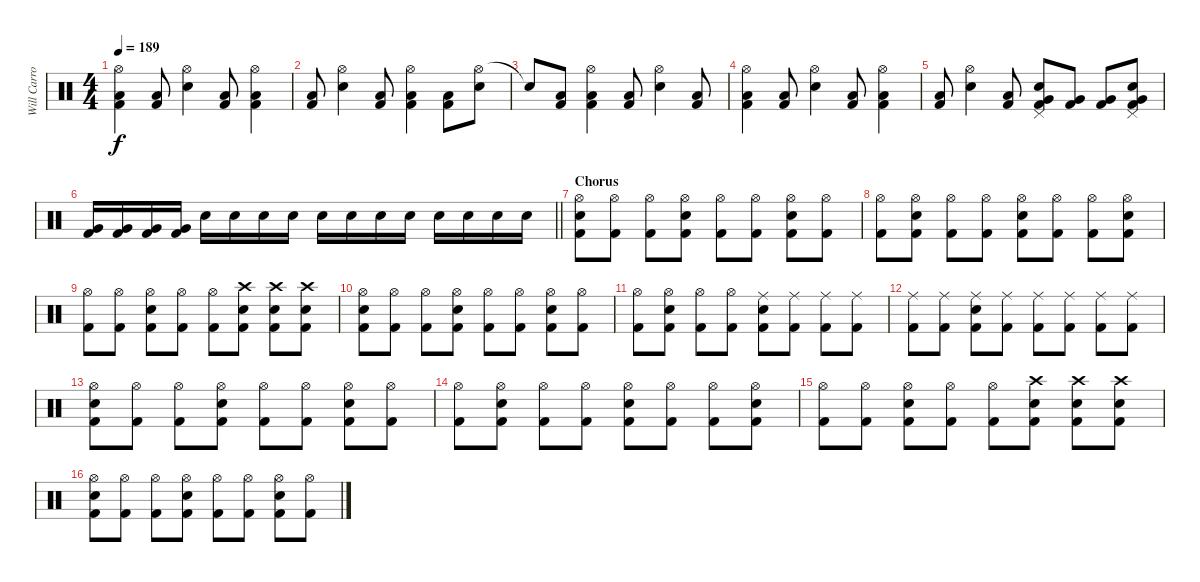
\track ("Will Carroll" "Will Carro") {instrument percussion}
\staff {score}
\articulation defaults
\ts (4 4)
\tempo 189
\clef neutral
\ks c
("Hi-Hat (open)" "Low Floor Tom (hit)" "Kick (hit) 2").4{dy f} ("Low Floor Tom (hit)" "Kick (hit) 2").8 ("Hi-Hat (open)" "Electric Snare (hit)").4 ("Low Floor Tom (hit)" "Kick (hit) 2").8 ("Hi-Hat (open)" "Low Floor Tom (hit)" "Kick (hit) 2").4 |
("Low Floor Tom (hit)" "Kick (hit) 2").8 ("Hi-Hat (open)" "Electric Snare (hit)").4 ("Low Floor Tom (hit)" "Kick (hit) 2").8 ("Hi-Hat (open)" "Low Floor Tom (hit)" "Kick (hit) 2").4 ("Low Floor Tom (hit)" "Kick (hit) 2").8 ("Hi-Hat (open)" "Electric Snare (hit)").8 |
"Snare (hit)"{t}.8 ("Low Floor Tom (hit)" "Kick (hit) 2").8 ("Hi-Hat (open)" "Low Floor Tom (hit)" "Kick (hit) 2").4 ("Low Floor Tom (hit)" "Kick (hit) 2").8 ("Hi-Hat (open)" "Electric Snare (hit)").4 ("Low Floor Tom (hit)" "Kick (hit) 2").8 |
("Hi-Hat (open)" "Low Floor Tom (hit)" "Kick (hit) 2").4 ("Low Floor Tom (hit)" "Kick (hit) 2").8 ("Hi-Hat (open)" "Electric Snare (hit)").4 ("Low Floor Tom (hit)" "Kick (hit) 2").8 ("Hi-Hat (open)" "Low Floor Tom (hit)" "Kick (hit) 2").4 |
("Low Floor Tom (hit)" "Kick (hit) 2").8 ("Hi-Hat (open)" "Electric Snare (hit)").4 ("Low Floor Tom (hit)" "Kick (hit) 2").8 ("Pedal Hi-Hat (hit)" "Very Low Tom (hit)" "Electric Snare (hit)" "Kick (hit) 2").8 ("Very Low Tom (hit)" "Kick (hit) 2").8 ("Very Low Tom (hit)" "Kick (hit) 2").8 ("Pedal Hi-Hat (hit)" "Very Low Tom (hit)" "Electric Snare (hit)" "Kick (hit) 2").8 |
\barLineRight lightlight
("Very Low Tom (hit)" "Kick (hit) 2").16 ("Very Low Tom (hit)" "Kick (hit) 2").16 ("Very Low Tom (hit)" "Kick (hit) 2").16 ("Very Low Tom (hit)" "Kick (hit) 2").16 "Electric Snare (hit)".16 "Electric Snare (hit)".16 "Electric Snare (hit)".16 "Electric Snare (hit)".16 "Electric Snare (hit)".16 "Electric Snare (hit)".16 "Electric Snare (hit)".16 "Electric Snare (hit)".16 "Electric Snare (hit)".16 "Electric Snare (hit)".16 "Electric Snare (hit)".16 "Electric Snare (hit)".16 |
\section ("" "Chorus")
("Hi-Hat (open)" "Electric Snare (hit)" "Kick (hit) 2").8 ("Hi-Hat (open)" "Kick (hit) 2").8 ("Hi-Hat (open)" "Kick (hit) 2").8 ("Hi-Hat (open)" "Electric Snare (hit)" "Kick (hit) 2").8 ("Hi-Hat (open)" "Kick (hit) 2").8 ("Hi-Hat (open)" "Kick (hit) 2").8 ("Hi-Hat (open)" "Electric Snare (hit)" "Kick (hit) 2").8 ("Hi-Hat (open)" "Kick (hit) 2").8 |
("Hi-Hat (open)" "Kick (hit) 2").8 ("Hi-Hat (open)" "Electric Snare (hit)" "Kick (hit) 2").8 ("Hi-Hat (open)" "Kick (hit) 2").8 ("Hi-Hat (open)" "Kick (hit) 2").8 ("Hi-Hat (open)" "Electric Snare (hit)" "Kick (hit) 2").8 ("Hi-Hat (open)" "Kick (hit) 2").8 ("Hi-Hat (open)" "Kick (hit) 2").8 ("Hi-Hat (open)" "Electric Snare (hit)" "Kick (hit) 2").8 |
("Hi-Hat (open)" "Kick (hit) 2").8 ("Hi-Hat (open)" "Kick (hit) 2").8 ("Hi-Hat (open)" "Electric Snare (hit)" "Kick (hit) 2").8 ("Hi-Hat (open)" "Kick (hit) 2").8 ("Hi-Hat (open)" "Kick (hit) 2").8 ("Crash high (hit)" "Electric Snare (hit)" "Kick (hit) 2").8 ("Crash high (hit)" "Electric Snare (hit)" "Kick (hit) 2").8 ("Crash high (hit)" "Electric Snare (hit)" "Kick (hit) 2").8 |
("Hi-Hat (open)" "Electric Snare (hit)" "Kick (hit) 2").8 ("Hi-Hat (open)" "Kick (hit) 2").8 ("Hi-Hat (open)" "Kick (hit) 2").8 ("Hi-Hat (open)" "Electric Snare (hit)" "Kick (hit) 2").8 ("Hi-Hat (open)" "Kick (hit) 2").8 ("Hi-Hat (open)" "Kick (hit) 2").8 ("Hi-Hat (open)" "Electric Snare (hit)" "Kick (hit) 2").8 ("Hi-Hat (open)" "Kick (hit) 2").8 |
("Hi-Hat (open)" "Kick (hit) 2").8 ("Hi-Hat (open)" "Electric Snare (hit)" "Kick (hit) 2").8 ("Hi-Hat (open)" "Kick (hit) 2").8 ("Hi-Hat (open)" "Kick (hit) 2").8 ("Ride (middle)" "Electric Snare (hit)" "Kick (hit) 2").8 ("Ride (middle)" "Kick (hit) 2").8 ("Ride (middle)" "Kick (hit) 2").8 ("Ride (middle)" "Kick (hit) 2").8 |
("Ride (middle)" "Kick (hit) 2").8 ("Ride (middle)" "Kick (hit) 2").8 ("Ride (middle)" "Electric Snare (hit)" "Kick (hit) 2").8 ("Ride (middle)" "Kick (hit) 2").8 ("Ride (middle)" "Kick (hit) 2").8 ("Ride (middle)" "Kick (hit) 2").8 ("Ride (middle)" "Kick (hit) 2").8 ("Ride (middle)" "Kick (hit) 2").8 |
("Hi-Hat (open)" "Electric Snare (hit)" "Kick (hit) 2").8 ("Hi-Hat (open)" "Kick (hit) 2").8 ("Hi-Hat (open)" "Kick (hit) 2").8 ("Hi-Hat (open)" "Electric Snare (hit)" "Kick (hit) 2").8 ("Hi-Hat (open)" "Kick (hit) 2").8 ("Hi-Hat (open)" "Kick (hit) 2").8 ("Hi-Hat (open)" "Electric Snare (hit)" "Kick (hit) 2").8 ("Hi-Hat (open)" "Kick (hit) 2").8 |
("Hi-Hat (open)" "Kick (hit) 2").8 ("Hi-Hat (open)" "Electric Snare (hit)" "Kick (hit) 2").8 ("Hi-Hat (open)" "Kick (hit) 2").8 ("Hi-Hat (open)" "Kick (hit) 2").8 ("Hi-Hat (open)" "Electric Snare (hit)" "Kick (hit) 2").8 ("Hi-Hat (open)" "Kick (hit) 2").8 ("Hi-Hat (open)" "Kick (hit) 2").8 ("Hi-Hat (open)" "Electric Snare (hit)" "Kick (hit) 2").8 |
("Hi-Hat (open)" "Kick (hit) 2").8 ("Hi-Hat (open)" "Kick (hit) 2").8 ("Hi-Hat (open)" "Electric Snare (hit)" "Kick (hit) 2").8 ("Hi-Hat (open)" "Kick (hit) 2").8 ("Hi-Hat (open)" "Kick (hit) 2").8 ("Crash high (hit)" "Electric Snare (hit)" "Kick (hit) 2").8 ("Crash high (hit)" "Electric Snare (hit)" "Kick (hit) 2").8 ("Crash high (hit)" "Electric Snare (hit)" "Kick (hit) 2").8 |
("Hi-Hat (open)" "Electric Snare (hit)" "Kick (hit) 2").8 ("Hi-Hat (open)" "Kick (hit) 2").8 ("Hi-Hat (open)" "Kick (hit) 2").8 ("Hi-Hat (open)" "Electric Snare (hit)" "Kick (hit) 2").8 ("Hi-Hat (open)" "Kick (hit) 2").8 ("Hi-Hat (open)" "Kick (hit) 2").8 ("Hi-Hat (open)" "Electric Snare (hit)" "Kick (hit) 2").8 ("Hi-Hat (open)" "Kick (hit) 2").8
